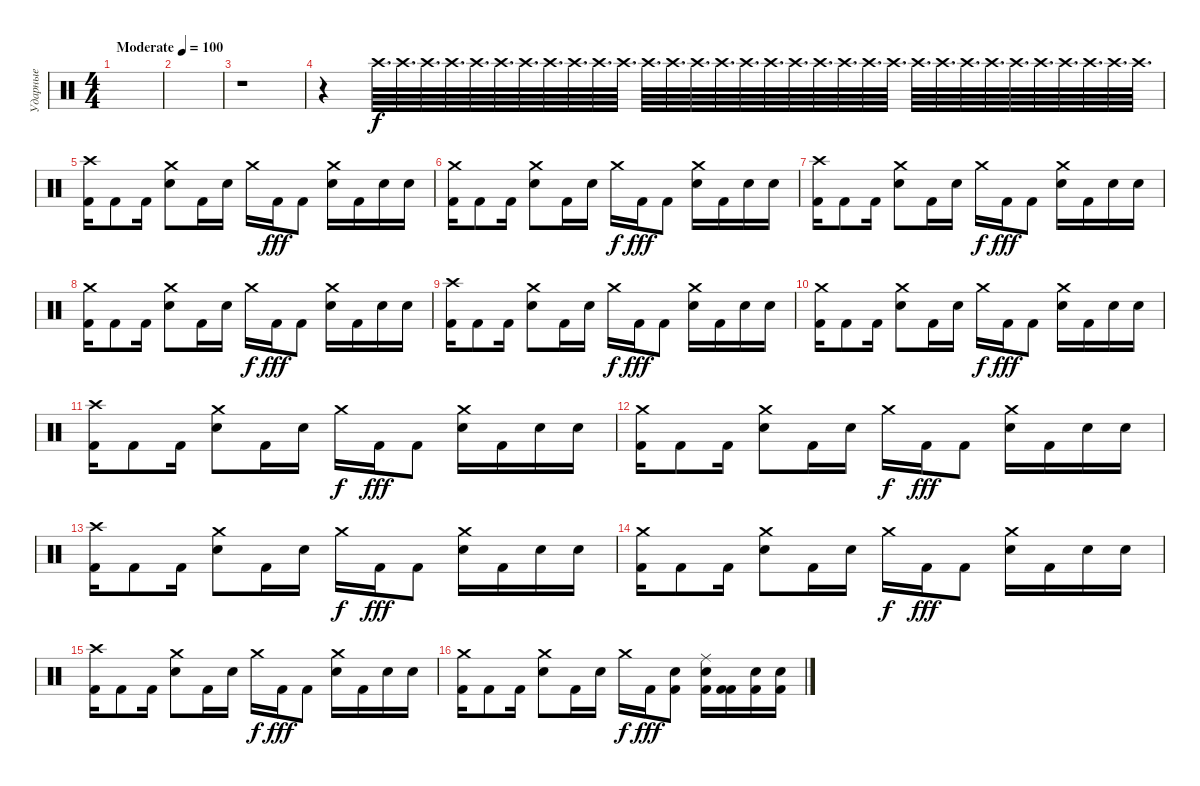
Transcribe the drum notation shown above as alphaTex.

\track ("Ударные" "Ударные") {instrument percussion}
\staff {score}
\articulation defaults
\ts (4 4)
\tempo (100 "Moderate")
\clef neutral
\ks c
|
|
r.1{volume 0} |
r.4 "Crash high (hit)".64{d volume 16} "Crash high (hit)".64{d} "Crash high (hit)".64{d} "Crash high (hit)".64{d} "Crash high (hit)".64{d} "Crash high (hit)".64{d} "Crash high (hit)".64{d} "Crash high (hit)".64{d} "Crash high (hit)".64{d} "Crash high (hit)".64{d} "Crash high (hit)".64{d} "Crash high (hit)".64{d} "Crash high (hit)".64{d} "Crash high (hit)".64{d} "Crash high (hit)".64{d} "Crash high (hit)".64{d} "Crash high (hit)".64{d} "Crash high (hit)".64{d} "Crash high (hit)".64{d} "Crash high (hit)".64{d} "Crash high (hit)".64{d} "Crash high (hit)".64{d} "Crash high (hit)".64{d} "Crash high (hit)".64{d} "Crash high (hit)".64{d} "Crash high (hit)".64{d} "Crash high (hit)".64{d} "Crash high (hit)".64{d} "Crash high (hit)".64{d} "Crash high (hit)".64{d} "Crash high (hit)".64{d} "Crash high (hit)".64{d} |
("Kick (hit) 2" "Crash high (hit)").16 "Kick (hit) 2".8 "Kick (hit) 2".16 ("Snare (hit) 2" "Crash medium (hit)").8 "Kick (hit) 2".16 "Snare (hit) 2".16 "Crash medium (hit)".16{dy f} "Kick (hit) 2".16{dy fff} "Kick (hit) 2".8 ("Snare (hit) 2" "Crash medium (hit)").16 "Kick (hit) 2".16 "Snare (hit) 2".16 "Snare (hit) 2".16 |
("Kick (hit) 2" "Crash medium (hit)").16 "Kick (hit) 2".8 "Kick (hit) 2".16 ("Snare (hit) 2" "Crash medium (hit)").8 "Kick (hit) 2".16 "Snare (hit) 2".16 "Crash medium (hit)".16{dy f} "Kick (hit) 2".16{dy fff} "Kick (hit) 2".8 ("Snare (hit) 2" "Crash medium (hit)").16 "Kick (hit) 2".16 "Snare (hit) 2".16 "Snare (hit) 2".16 |
("Kick (hit) 2" "Crash high (hit)").16 "Kick (hit) 2".8 "Kick (hit) 2".16 ("Snare (hit) 2" "Crash medium (hit)").8 "Kick (hit) 2".16 "Snare (hit) 2".16 "Crash medium (hit)".16{dy f} "Kick (hit) 2".16{dy fff} "Kick (hit) 2".8 ("Snare (hit) 2" "Crash medium (hit)").16 "Kick (hit) 2".16 "Snare (hit) 2".16 "Snare (hit) 2".16 |
("Kick (hit) 2" "Crash medium (hit)").16 "Kick (hit) 2".8 "Kick (hit) 2".16 ("Snare (hit) 2" "Crash medium (hit)").8 "Kick (hit) 2".16 "Snare (hit) 2".16 "Crash medium (hit)".16{dy f} "Kick (hit) 2".16{dy fff} "Kick (hit) 2".8 ("Snare (hit) 2" "Crash medium (hit)").16 "Kick (hit) 2".16 "Snare (hit) 2".16 "Snare (hit) 2".16 |
("Kick (hit) 2" "Crash high (hit)").16 "Kick (hit) 2".8 "Kick (hit) 2".16 ("Snare (hit) 2" "Crash medium (hit)").8 "Kick (hit) 2".16 "Snare (hit) 2".16 "Crash medium (hit)".16{dy f} "Kick (hit) 2".16{dy fff} "Kick (hit) 2".8 ("Snare (hit) 2" "Crash medium (hit)").16 "Kick (hit) 2".16 "Snare (hit) 2".16 "Snare (hit) 2".16 |
("Kick (hit) 2" "Crash medium (hit)").16 "Kick (hit) 2".8 "Kick (hit) 2".16 ("Snare (hit) 2" "Crash medium (hit)").8 "Kick (hit) 2".16 "Snare (hit) 2".16 "Crash medium (hit)".16{dy f} "Kick (hit) 2".16{dy fff} "Kick (hit) 2".8 ("Snare (hit) 2" "Crash medium (hit)").16 "Kick (hit) 2".16 "Snare (hit) 2".16 "Snare (hit) 2".16 |
("Kick (hit) 2" "Crash high (hit)").16 "Kick (hit) 2".8 "Kick (hit) 2".16 ("Snare (hit) 2" "Crash medium (hit)").8 "Kick (hit) 2".16 "Snare (hit) 2".16 "Crash medium (hit)".16{dy f} "Kick (hit) 2".16{dy fff} "Kick (hit) 2".8 ("Snare (hit) 2" "Crash medium (hit)").16 "Kick (hit) 2".16 "Snare (hit) 2".16 "Snare (hit) 2".16 |
("Kick (hit) 2" "Crash medium (hit)").16 "Kick (hit) 2".8 "Kick (hit) 2".16 ("Snare (hit) 2" "Crash medium (hit)").8 "Kick (hit) 2".16 "Snare (hit) 2".16 "Crash medium (hit)".16{dy f} "Kick (hit) 2".16{dy fff} "Kick (hit) 2".8 ("Snare (hit) 2" "Crash medium (hit)").16 "Kick (hit) 2".16 "Snare (hit) 2".16 "Snare (hit) 2".16 |
("Kick (hit) 2" "Crash high (hit)").16 "Kick (hit) 2".8 "Kick (hit) 2".16 ("Snare (hit) 2" "Crash medium (hit)").8 "Kick (hit) 2".16 "Snare (hit) 2".16 "Crash medium (hit)".16{dy f} "Kick (hit) 2".16{dy fff} "Kick (hit) 2".8 ("Snare (hit) 2" "Crash medium (hit)").16 "Kick (hit) 2".16 "Snare (hit) 2".16 "Snare (hit) 2".16 |
("Kick (hit) 2" "Crash medium (hit)").16 "Kick (hit) 2".8 "Kick (hit) 2".16 ("Snare (hit) 2" "Crash medium (hit)").8 "Kick (hit) 2".16 "Snare (hit) 2".16 "Crash medium (hit)".16{dy f} "Kick (hit) 2".16{dy fff} "Kick (hit) 2".8 ("Snare (hit) 2" "Crash medium (hit)").16 "Kick (hit) 2".16 "Snare (hit) 2".16 "Snare (hit) 2".16 |
("Kick (hit) 2" "Crash high (hit)").16 "Kick (hit) 2".8 "Kick (hit) 2".16 ("Snare (hit) 2" "Crash medium (hit)").8 "Kick (hit) 2".16 "Snare (hit) 2".16 "Crash medium (hit)".16{dy f} "Kick (hit) 2".16{dy fff} "Kick (hit) 2".8 ("Snare (hit) 2" "Crash medium (hit)").16 "Kick (hit) 2".16 "Snare (hit) 2".16 "Snare (hit) 2".16 |
("Kick (hit) 2" "Crash medium (hit)").16 "Kick (hit) 2".8 "Kick (hit) 2".16 ("Snare (hit) 2" "Crash medium (hit)").8 "Kick (hit) 2".16 "Snare (hit) 2".16 "Crash medium (hit)".16{dy f} "Kick (hit) 2".16{dy fff} ("Kick (hit) 2" "Snare (hit) 2").8 ("Snare (hit) 2" "Kick (hit) 2" "Ride (middle)").16 ("Kick (hit) 2" "Kick (hit) 2").16 ("Snare (hit) 2" "Kick (hit) 2").16 ("Snare (hit) 2" "Kick (hit) 2").16
